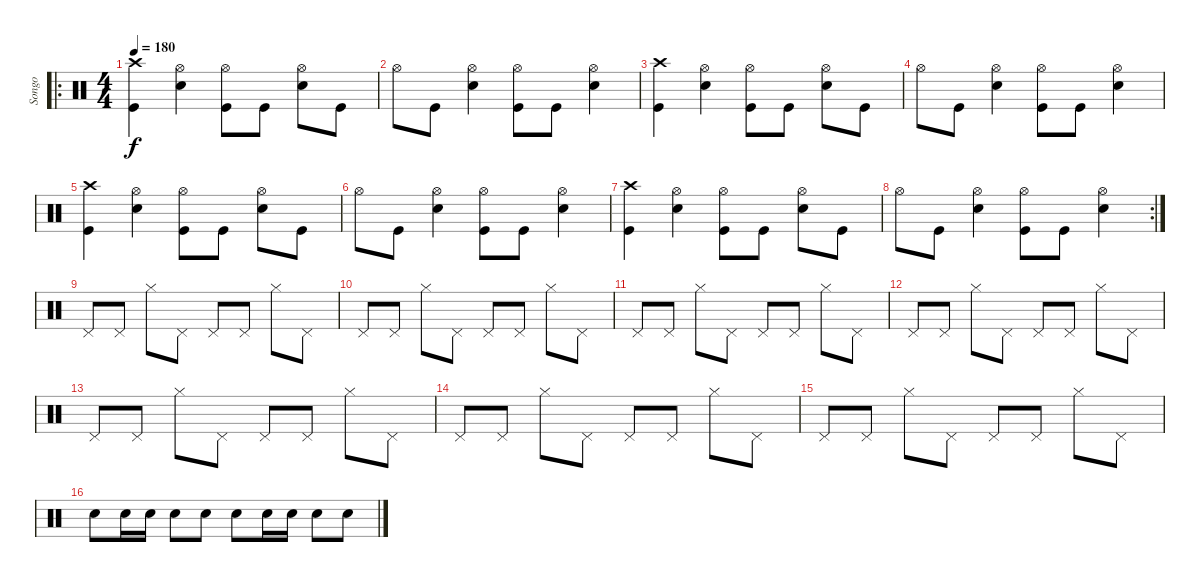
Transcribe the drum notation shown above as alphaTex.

\track ("Songo" "Songo") {instrument percussion}
\staff {score}
\articulation defaults
\ro
\ts (4 4)
\tempo 180
\clef neutral
\ks c
("Kick (hit)" "Crash high (hit)").4{dy f} ("Hi-Hat (open)" "Snare (hit) 2").4 ("Hi-Hat (open)" "Kick (hit)").8 "Kick (hit)".8 ("Hi-Hat (open)" "Snare (hit) 2").8 "Kick (hit)".8 |
"Hi-Hat (open)".8 "Kick (hit)".8 ("Hi-Hat (open)" "Snare (hit) 2").4 ("Hi-Hat (open)" "Kick (hit)").8 "Kick (hit)".8 ("Hi-Hat (open)" "Snare (hit) 2").4 |
("Kick (hit)" "Crash high (hit)").4 ("Hi-Hat (open)" "Snare (hit) 2").4 ("Hi-Hat (open)" "Kick (hit)").8 "Kick (hit)".8 ("Hi-Hat (open)" "Snare (hit) 2").8 "Kick (hit)".8 |
"Hi-Hat (open)".8 "Kick (hit)".8 ("Hi-Hat (open)" "Snare (hit) 2").4 ("Hi-Hat (open)" "Kick (hit)").8 "Kick (hit)".8 ("Hi-Hat (open)" "Snare (hit) 2").4 |
("Kick (hit)" "Crash high (hit)").4 ("Hi-Hat (open)" "Snare (hit) 2").4 ("Hi-Hat (open)" "Kick (hit)").8 "Kick (hit)".8 ("Hi-Hat (open)" "Snare (hit) 2").8 "Kick (hit)".8 |
"Hi-Hat (open)".8 "Kick (hit)".8 ("Hi-Hat (open)" "Snare (hit) 2").4 ("Hi-Hat (open)" "Kick (hit)").8 "Kick (hit)".8 ("Hi-Hat (open)" "Snare (hit) 2").4 |
("Kick (hit)" "Crash high (hit)").4 ("Hi-Hat (open)" "Snare (hit) 2").4 ("Hi-Hat (open)" "Kick (hit)").8 "Kick (hit)".8 ("Hi-Hat (open)" "Snare (hit) 2").8 "Kick (hit)".8 |
\rc 2 "Hi-Hat (open)".8 "Kick (hit)".8
("Hi-Hat (open)" "Snare (hit) 2").4 ("Hi-Hat (open)" "Kick (hit)").8 "Kick (hit)".8 ("Hi-Hat (open)" "Snare (hit) 2").4 |
"Pedal Hi-Hat (hit)".8 "Pedal Hi-Hat (hit)".8 "Hi-Hat (closed)".8 "Pedal Hi-Hat (hit)".8 "Pedal Hi-Hat (hit)".8 "Pedal Hi-Hat (hit)".8 "Hi-Hat (closed)".8 "Pedal Hi-Hat (hit)".8 |
"Pedal Hi-Hat (hit)".8 "Pedal Hi-Hat (hit)".8 "Hi-Hat (closed)".8 "Pedal Hi-Hat (hit)".8 "Pedal Hi-Hat (hit)".8 "Pedal Hi-Hat (hit)".8 "Hi-Hat (closed)".8 "Pedal Hi-Hat (hit)".8 |
"Pedal Hi-Hat (hit)".8 "Pedal Hi-Hat (hit)".8 "Hi-Hat (closed)".8 "Pedal Hi-Hat (hit)".8 "Pedal Hi-Hat (hit)".8 "Pedal Hi-Hat (hit)".8 "Hi-Hat (closed)".8 "Pedal Hi-Hat (hit)".8 |
"Pedal Hi-Hat (hit)".8 "Pedal Hi-Hat (hit)".8 "Hi-Hat (closed)".8 "Pedal Hi-Hat (hit)".8 "Pedal Hi-Hat (hit)".8 "Pedal Hi-Hat (hit)".8 "Hi-Hat (closed)".8 "Pedal Hi-Hat (hit)".8 |
"Pedal Hi-Hat (hit)".8 "Pedal Hi-Hat (hit)".8 "Hi-Hat (closed)".8 "Pedal Hi-Hat (hit)".8 "Pedal Hi-Hat (hit)".8 "Pedal Hi-Hat (hit)".8 "Hi-Hat (closed)".8 "Pedal Hi-Hat (hit)".8 |
"Pedal Hi-Hat (hit)".8 "Pedal Hi-Hat (hit)".8 "Hi-Hat (closed)".8 "Pedal Hi-Hat (hit)".8 "Pedal Hi-Hat (hit)".8 "Pedal Hi-Hat (hit)".8 "Hi-Hat (closed)".8 "Pedal Hi-Hat (hit)".8 |
"Pedal Hi-Hat (hit)".8 "Pedal Hi-Hat (hit)".8 "Hi-Hat (closed)".8 "Pedal Hi-Hat (hit)".8 "Pedal Hi-Hat (hit)".8 "Pedal Hi-Hat (hit)".8 "Hi-Hat (closed)".8 "Pedal Hi-Hat (hit)".8 |
"Snare (hit) 2".8 "Snare (hit) 2".16 "Snare (hit) 2".16 "Snare (hit) 2".8 "Snare (hit) 2".8 "Snare (hit) 2".8 "Snare (hit) 2".16 "Snare (hit) 2".16 "Snare (hit) 2".8 "Snare (hit) 2".8
